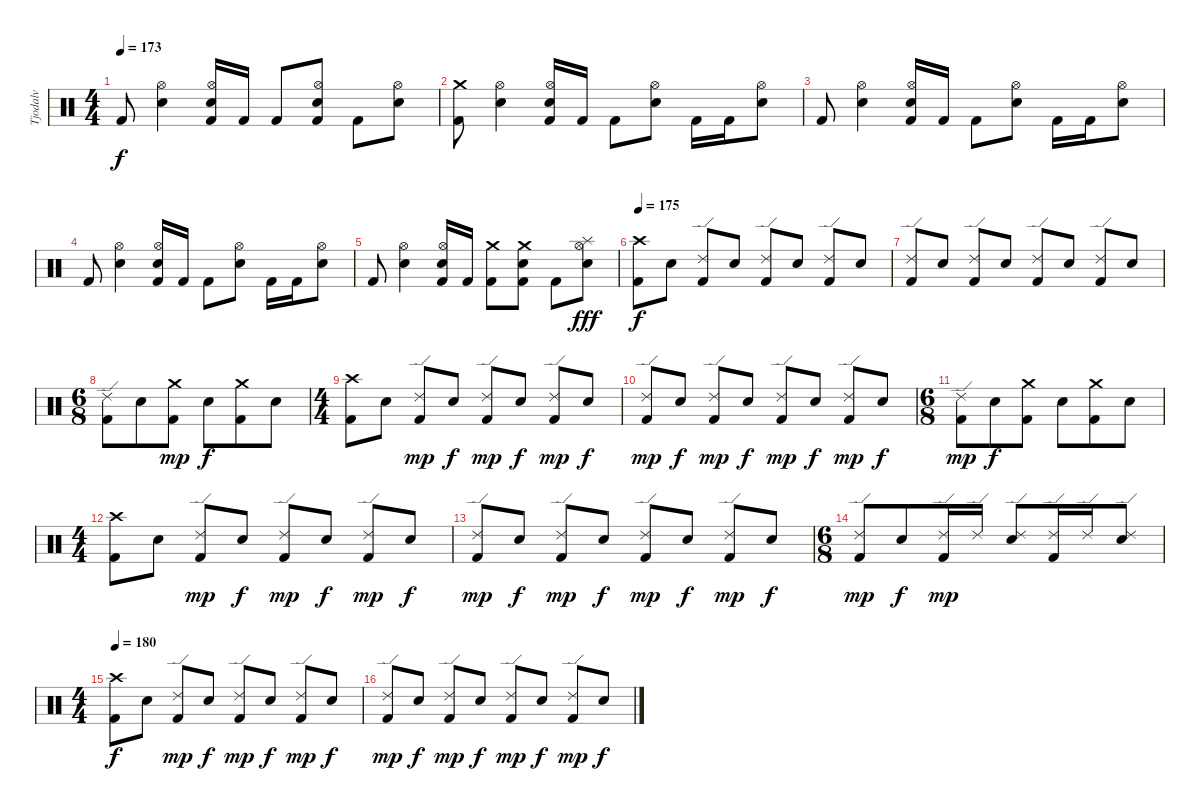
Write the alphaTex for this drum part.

\track ("Tjodalv" "Tjodalv") {instrument percussion}
\staff {score}
\articulation defaults
\ts (4 4)
\tempo 173
\clef neutral
\ks c "Kick (hit) 2".8{dy f}
("Hi-Hat (open)" "Electric Snare (hit)").4 ("Hi-Hat (open)" "Electric Snare (hit)" "Kick (hit) 2").16 "Kick (hit) 2".16 "Kick (hit) 2".8 ("Hi-Hat (open)" "Electric Snare (hit)" "Kick (hit) 2").8 "Kick (hit) 2".8 ("Hi-Hat (open)" "Electric Snare (hit)").8 |
("Crash medium (hit)" "Kick (hit) 2").8 ("Hi-Hat (open)" "Electric Snare (hit)").4 ("Hi-Hat (open)" "Electric Snare (hit)" "Kick (hit) 2").16 "Kick (hit) 2".16 "Kick (hit) 2".8 ("Hi-Hat (open)" "Electric Snare (hit)").8 "Kick (hit) 2".16 "Kick (hit) 2".16 ("Hi-Hat (open)" "Electric Snare (hit)").8 |
"Kick (hit) 2".8 ("Hi-Hat (open)" "Electric Snare (hit)").4 ("Hi-Hat (open)" "Electric Snare (hit)" "Kick (hit) 2").16 "Kick (hit) 2".16 "Kick (hit) 2".8 ("Hi-Hat (open)" "Electric Snare (hit)").8 "Kick (hit) 2".16 "Kick (hit) 2".16 ("Hi-Hat (open)" "Electric Snare (hit)").8 |
"Kick (hit) 2".8 ("Hi-Hat (open)" "Electric Snare (hit)").4 ("Hi-Hat (open)" "Electric Snare (hit)" "Kick (hit) 2").16 "Kick (hit) 2".16 "Kick (hit) 2".8 ("Hi-Hat (open)" "Electric Snare (hit)").8 "Kick (hit) 2".16 "Kick (hit) 2".16 ("Hi-Hat (open)" "Electric Snare (hit)").8 |
"Kick (hit) 2".8 ("Hi-Hat (open)" "Electric Snare (hit)").4 ("Hi-Hat (open)" "Electric Snare (hit)" "Kick (hit) 2").16 "Kick (hit) 2".16 ("Crash medium (hit)" "Kick (hit) 2").8 ("Crash medium (hit)" "Electric Snare (hit)" "Kick (hit) 2").8 "Kick (hit) 2".8 ("Splash (hit)" "Hi-Hat (open)" "Electric Snare (hit)").8{dy fff} |
\tempo 175
("Crash high (hit)" "Kick (hit) 2").8{dy f} "Electric Snare (hit)".8 ("Ride (edge) 2" "Kick (hit) 2").8 "Electric Snare (hit)".8 ("Ride (edge) 2" "Kick (hit) 2").8 "Electric Snare (hit)".8 ("Ride (edge) 2" "Kick (hit) 2").8 "Electric Snare (hit)".8 |
("Ride (edge) 2" "Kick (hit) 2").8 "Electric Snare (hit)".8 ("Ride (edge) 2" "Kick (hit) 2").8 "Electric Snare (hit)".8 ("Ride (edge) 2" "Kick (hit) 2").8 "Electric Snare (hit)".8 ("Ride (edge) 2" "Kick (hit) 2").8 "Electric Snare (hit)".8 |
\ts (6 8)
("Ride (edge) 2" "Kick (hit) 2").8 "Electric Snare (hit)".8 ("Crash medium (hit)" "Kick (hit) 2").8{dy mp} "Electric Snare (hit)".8{dy f} ("Crash medium (hit)" "Kick (hit) 2").8 "Electric Snare (hit)".8 |
\ts (4 4)
("Crash high (hit)" "Kick (hit) 2").8 "Electric Snare (hit)".8 ("Ride (edge) 2" "Kick (hit) 2").8{dy mp} "Electric Snare (hit)".8{dy f} ("Ride (edge) 2" "Kick (hit) 2").8{dy mp} "Electric Snare (hit)".8{dy f} ("Ride (edge) 2" "Kick (hit) 2").8{dy mp} "Electric Snare (hit)".8{dy f} |
("Ride (edge) 2" "Kick (hit) 2").8{dy mp} "Electric Snare (hit)".8{dy f} ("Ride (edge) 2" "Kick (hit) 2").8{dy mp} "Electric Snare (hit)".8{dy f} ("Ride (edge) 2" "Kick (hit) 2").8{dy mp} "Electric Snare (hit)".8{dy f} ("Ride (edge) 2" "Kick (hit) 2").8{dy mp} "Electric Snare (hit)".8{dy f} |
\ts (6 8)
("Ride (edge) 2" "Kick (hit) 2").8{dy mp} "Electric Snare (hit)".8{dy f} ("Crash medium (hit)" "Kick (hit) 2").8 "Electric Snare (hit)".8 ("Crash medium (hit)" "Kick (hit) 2").8 "Electric Snare (hit)".8 |
\ts (4 4)
("Crash high (hit)" "Kick (hit) 2").8 "Electric Snare (hit)".8 ("Ride (edge) 2" "Kick (hit) 2").8{dy mp} "Electric Snare (hit)".8{dy f} ("Ride (edge) 2" "Kick (hit) 2").8{dy mp} "Electric Snare (hit)".8{dy f} ("Ride (edge) 2" "Kick (hit) 2").8{dy mp} "Electric Snare (hit)".8{dy f} |
("Ride (edge) 2" "Kick (hit) 2").8{dy mp} "Electric Snare (hit)".8{dy f} ("Ride (edge) 2" "Kick (hit) 2").8{dy mp} "Electric Snare (hit)".8{dy f} ("Ride (edge) 2" "Kick (hit) 2").8{dy mp} "Electric Snare (hit)".8{dy f} ("Ride (edge) 2" "Kick (hit) 2").8{dy mp} "Electric Snare (hit)".8{dy f} |
\ts (6 8)
("Ride (edge) 2" "Kick (hit) 2").8{dy mp} "Electric Snare (hit)".8{dy f} ("Ride (edge) 2" "Kick (hit) 2").16{dy mp} "Ride (edge) 2".16 ("Ride (edge) 2" "Electric Snare (hit)").8 ("Ride (edge) 2" "Kick (hit) 2").16 "Ride (edge) 2".16 ("Ride (edge) 2" "Electric Snare (hit)").8 |
\ts (4 4)
\tempo 180
("Crash high (hit)" "Kick (hit) 2").8{dy f} "Electric Snare (hit)".8 ("Ride (edge) 2" "Kick (hit) 2").8{dy mp} "Electric Snare (hit)".8{dy f} ("Ride (edge) 2" "Kick (hit) 2").8{dy mp} "Electric Snare (hit)".8{dy f} ("Ride (edge) 2" "Kick (hit) 2").8{dy mp} "Electric Snare (hit)".8{dy f} |
("Ride (edge) 2" "Kick (hit) 2").8{dy mp} "Electric Snare (hit)".8{dy f} ("Ride (edge) 2" "Kick (hit) 2").8{dy mp} "Electric Snare (hit)".8{dy f} ("Ride (edge) 2" "Kick (hit) 2").8{dy mp} "Electric Snare (hit)".8{dy f} ("Ride (edge) 2" "Kick (hit) 2").8{dy mp} "Electric Snare (hit)".8{dy f}
